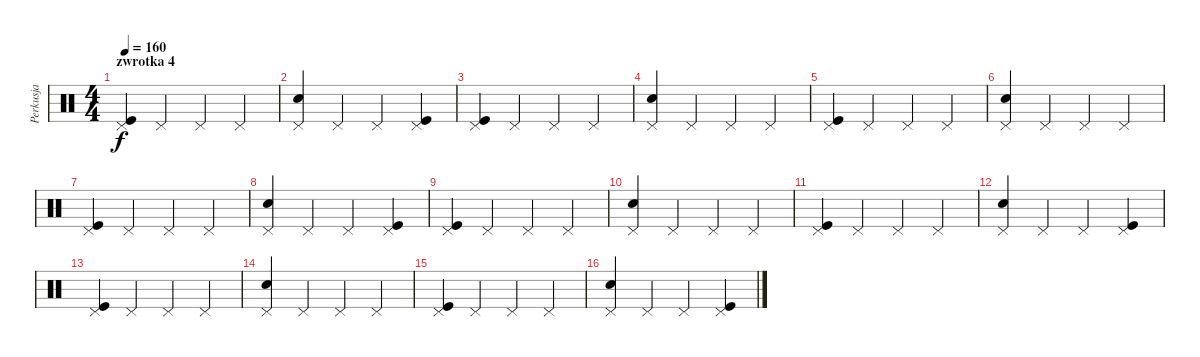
\track ("Perkusja" "Perkusja") {instrument percussion}
\staff {score}
\articulation defaults
\ts (4 4)
\section ("" "zwrotka 4")
\tempo 160
\clef neutral
\ks c
("Kick (hit)" "Pedal Hi-Hat (hit)").4{dy f} "Pedal Hi-Hat (hit)".4 "Pedal Hi-Hat (hit)".4 "Pedal Hi-Hat (hit)".4 |
("Snare (hit) 2" "Pedal Hi-Hat (hit)").4 "Pedal Hi-Hat (hit)".4 "Pedal Hi-Hat (hit)".4 ("Kick (hit)" "Pedal Hi-Hat (hit)").4 |
("Kick (hit)" "Pedal Hi-Hat (hit)").4 "Pedal Hi-Hat (hit)".4 "Pedal Hi-Hat (hit)".4 "Pedal Hi-Hat (hit)".4 |
("Snare (hit) 2" "Pedal Hi-Hat (hit)").4 "Pedal Hi-Hat (hit)".4 "Pedal Hi-Hat (hit)".4 "Pedal Hi-Hat (hit)".4 |
("Kick (hit)" "Pedal Hi-Hat (hit)").4 "Pedal Hi-Hat (hit)".4 "Pedal Hi-Hat (hit)".4 "Pedal Hi-Hat (hit)".4 |
("Snare (hit) 2" "Pedal Hi-Hat (hit)").4 "Pedal Hi-Hat (hit)".4 "Pedal Hi-Hat (hit)".4 "Pedal Hi-Hat (hit)".4 |
("Kick (hit)" "Pedal Hi-Hat (hit)").4 "Pedal Hi-Hat (hit)".4 "Pedal Hi-Hat (hit)".4 "Pedal Hi-Hat (hit)".4 |
("Snare (hit) 2" "Pedal Hi-Hat (hit)").4 "Pedal Hi-Hat (hit)".4 "Pedal Hi-Hat (hit)".4 ("Kick (hit)" "Pedal Hi-Hat (hit)").4 |
("Kick (hit)" "Pedal Hi-Hat (hit)").4 "Pedal Hi-Hat (hit)".4 "Pedal Hi-Hat (hit)".4 "Pedal Hi-Hat (hit)".4 |
("Snare (hit) 2" "Pedal Hi-Hat (hit)").4 "Pedal Hi-Hat (hit)".4 "Pedal Hi-Hat (hit)".4 "Pedal Hi-Hat (hit)".4 |
("Kick (hit)" "Pedal Hi-Hat (hit)").4 "Pedal Hi-Hat (hit)".4 "Pedal Hi-Hat (hit)".4 "Pedal Hi-Hat (hit)".4 |
("Snare (hit) 2" "Pedal Hi-Hat (hit)").4 "Pedal Hi-Hat (hit)".4 "Pedal Hi-Hat (hit)".4 ("Kick (hit)" "Pedal Hi-Hat (hit)").4 |
("Kick (hit)" "Pedal Hi-Hat (hit)").4 "Pedal Hi-Hat (hit)".4 "Pedal Hi-Hat (hit)".4 "Pedal Hi-Hat (hit)".4 |
("Snare (hit) 2" "Pedal Hi-Hat (hit)").4 "Pedal Hi-Hat (hit)".4 "Pedal Hi-Hat (hit)".4 "Pedal Hi-Hat (hit)".4 |
("Kick (hit)" "Pedal Hi-Hat (hit)").4 "Pedal Hi-Hat (hit)".4 "Pedal Hi-Hat (hit)".4 "Pedal Hi-Hat (hit)".4 |
("Snare (hit) 2" "Pedal Hi-Hat (hit)").4 "Pedal Hi-Hat (hit)".4 "Pedal Hi-Hat (hit)".4 ("Kick (hit)" "Pedal Hi-Hat (hit)").4
